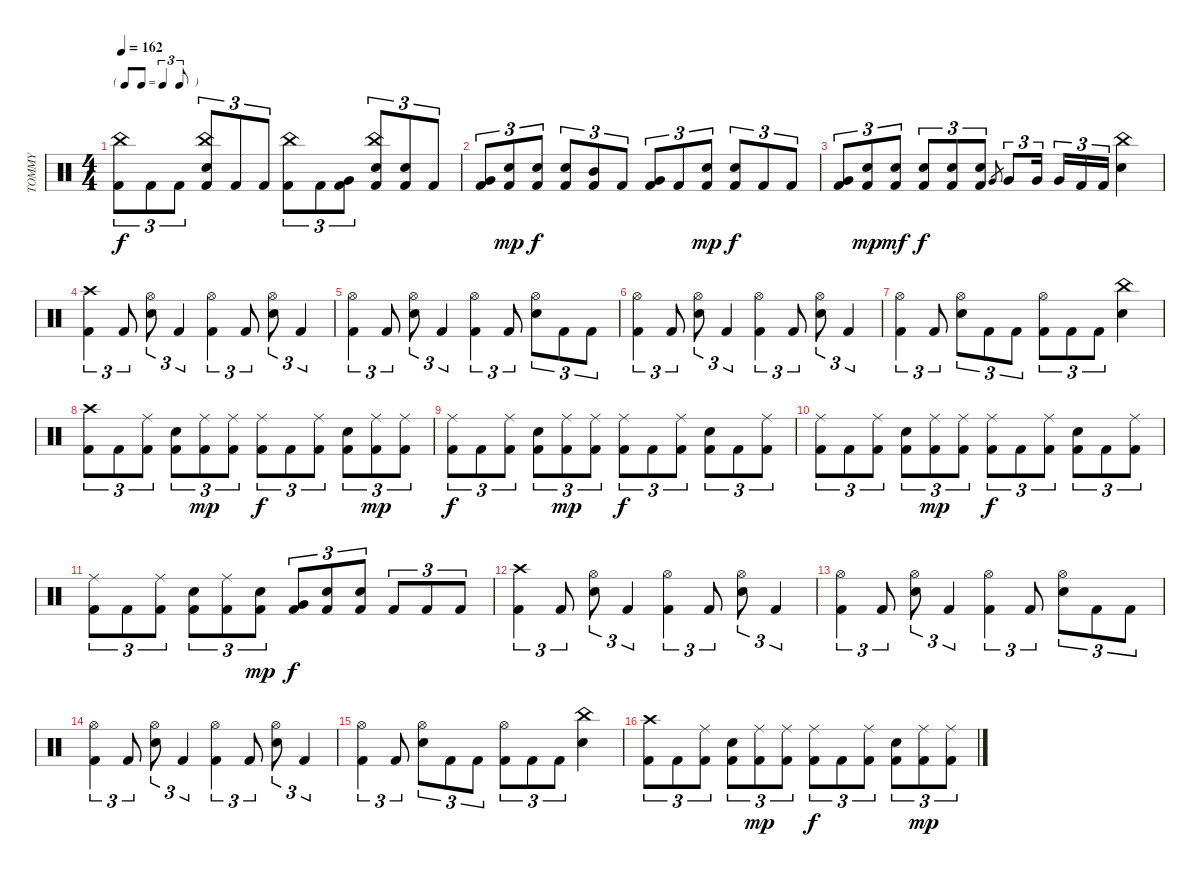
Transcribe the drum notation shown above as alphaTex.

\track ("TOMMY" "TOMMY") {instrument percussion}
\staff {score}
\articulation defaults
\ts (4 4)
\tf triplet8th
\tempo 162
\clef neutral
\ks c
("Kick (hit) 2" "China (hit)").8{tu (3 2) dy f} "Kick (hit) 2".8{tu (3 2)} "Kick (hit) 2".8{tu (3 2)} ("Snare (hit) 2" "Kick (hit) 2" "China (hit)").8{tu (3 2)} "Kick (hit) 2".8{tu (3 2)} "Kick (hit) 2".8{tu (3 2)} ("Kick (hit) 2" "China (hit)").8{tu (3 2)} "Kick (hit) 2".8{tu (3 2)} ("Kick (hit) 2" "Very Low Tom (hit)").8{tu (3 2)} ("Snare (hit) 2" "Kick (hit) 2" "China (hit)").8{tu (3 2)} ("Snare (hit) 2" "Kick (hit) 2").8{tu (3 2)} "Kick (hit) 2".8{tu (3 2)} |
("Kick (hit) 2" "Very Low Tom (hit)").8{tu (3 2)} ("Snare (hit) 2" "Kick (hit) 2").8{tu (3 2) dy mp} ("Snare (hit) 2" "Kick (hit) 2").8{tu (3 2) dy f} ("Snare (hit) 2" "Kick (hit) 2").8{tu (3 2)} ("Kick (hit) 2" "Mid Tom (hit)").8{tu (3 2)} "Kick (hit) 2".8{tu (3 2)} ("Kick (hit) 2" "Very Low Tom (hit)").8{tu (3 2)} "Kick (hit) 2".8{tu (3 2)} ("Snare (hit) 2" "Kick (hit) 2").8{tu (3 2) dy mp} ("Snare (hit) 2" "Kick (hit) 2").8{tu (3 2) dy f} "Kick (hit) 2".8{tu (3 2)} "Kick (hit) 2".8{tu (3 2)} |
("Kick (hit) 2" "Very Low Tom (hit)").8{tu (3 2)} ("Snare (hit) 2" "Kick (hit) 2").8{tu (3 2) dy mp} ("Snare (hit) 2" "Kick (hit) 2").8{tu (3 2) dy mf} ("Snare (hit) 2" "Kick (hit) 2").8{tu (3 2) dy f} ("Snare (hit) 2" "Kick (hit) 2").8{tu (3 2)} ("Snare (hit) 2" "Kick (hit) 2").8{tu (3 2)} "Very Low Tom (hit)".8{gr} "Very Low Tom (hit)".8{tu (3 2)} "Very Low Tom (hit)".16{tu (3 2)} "Very Low Tom (hit)".16{tu (3 2)} "Kick (hit) 2".16{tu (3 2)} "Kick (hit) 2".16{tu (3 2)} ("Snare (hit) 2" "China (hit)").4 |
("Kick (hit) 2" "Crash high (hit)").4{tu (3 2)} "Kick (hit) 2".8{tu (3 2)} ("Snare (hit) 2" "Hi-Hat (open)").8{tu (3 2)} "Kick (hit) 2".4{tu (3 2)} ("Kick (hit) 2" "Hi-Hat (open)").4{tu (3 2)} "Kick (hit) 2".8{tu (3 2)} ("Snare (hit) 2" "Hi-Hat (open)").8{tu (3 2)} "Kick (hit) 2".4{tu (3 2)} |
("Kick (hit) 2" "Hi-Hat (open)").4{tu (3 2)} "Kick (hit) 2".8{tu (3 2)} ("Snare (hit) 2" "Hi-Hat (open)").8{tu (3 2)} "Kick (hit) 2".4{tu (3 2)} ("Kick (hit) 2" "Hi-Hat (open)").4{tu (3 2)} "Kick (hit) 2".8{tu (3 2)} ("Snare (hit) 2" "Hi-Hat (open)").8{tu (3 2)} "Kick (hit) 2".8{tu (3 2)} "Kick (hit) 2".8{tu (3 2)} |
("Kick (hit) 2" "Hi-Hat (open)").4{tu (3 2)} "Kick (hit) 2".8{tu (3 2)} ("Snare (hit) 2" "Hi-Hat (open)").8{tu (3 2)} "Kick (hit) 2".4{tu (3 2)} ("Kick (hit) 2" "Hi-Hat (open)").4{tu (3 2)} "Kick (hit) 2".8{tu (3 2)} ("Snare (hit) 2" "Hi-Hat (open)").8{tu (3 2)} "Kick (hit) 2".4{tu (3 2)} |
("Kick (hit) 2" "Hi-Hat (open)").4{tu (3 2)} "Kick (hit) 2".8{tu (3 2)} ("Snare (hit) 2" "Hi-Hat (open)").8{tu (3 2)} "Kick (hit) 2".8{tu (3 2)} "Kick (hit) 2".8{tu (3 2)} ("Kick (hit) 2" "Hi-Hat (open)").8{tu (3 2)} "Kick (hit) 2".8{tu (3 2)} "Kick (hit) 2".8{tu (3 2)} ("Snare (hit) 2" "China (hit)").4 |
("Kick (hit) 2" "Crash high (hit)").8{tu (3 2)} "Kick (hit) 2".8{tu (3 2)} ("Kick (hit) 2" "Ride (middle)").8{tu (3 2)} ("Snare (hit) 2" "Kick (hit) 2").8{tu (3 2)} ("Kick (hit) 2" "Ride (middle)").8{tu (3 2) dy mp} ("Kick (hit) 2" "Ride (middle)").8{tu (3 2)} ("Kick (hit) 2" "Ride (middle)").8{tu (3 2) dy f} "Kick (hit) 2".8{tu (3 2)} ("Kick (hit) 2" "Ride (middle)").8{tu (3 2)} ("Snare (hit) 2" "Kick (hit) 2").8{tu (3 2)} ("Kick (hit) 2" "Ride (middle)").8{tu (3 2) dy mp} ("Kick (hit) 2" "Ride (middle)").8{tu (3 2)} |
("Kick (hit) 2" "Ride (middle)").8{tu (3 2) dy f} "Kick (hit) 2".8{tu (3 2)} ("Kick (hit) 2" "Ride (middle)").8{tu (3 2)} ("Snare (hit) 2" "Kick (hit) 2").8{tu (3 2)} ("Kick (hit) 2" "Ride (middle)").8{tu (3 2) dy mp} ("Kick (hit) 2" "Ride (middle)").8{tu (3 2)} ("Kick (hit) 2" "Ride (middle)").8{tu (3 2) dy f} "Kick (hit) 2".8{tu (3 2)} ("Kick (hit) 2" "Ride (middle)").8{tu (3 2)} ("Snare (hit) 2" "Kick (hit) 2").8{tu (3 2)} "Kick (hit) 2".8{tu (3 2)} ("Kick (hit) 2" "Ride (middle)").8{tu (3 2)} |
("Kick (hit) 2" "Ride (middle)").8{tu (3 2)} "Kick (hit) 2".8{tu (3 2)} ("Kick (hit) 2" "Ride (middle)").8{tu (3 2)} ("Snare (hit) 2" "Kick (hit) 2").8{tu (3 2)} ("Kick (hit) 2" "Ride (middle)").8{tu (3 2) dy mp} ("Kick (hit) 2" "Ride (middle)").8{tu (3 2)} ("Kick (hit) 2" "Ride (middle)").8{tu (3 2) dy f} "Kick (hit) 2".8{tu (3 2)} ("Kick (hit) 2" "Ride (middle)").8{tu (3 2)} ("Snare (hit) 2" "Kick (hit) 2").8{tu (3 2)} "Kick (hit) 2".8{tu (3 2)} ("Kick (hit) 2" "Ride (middle)").8{tu (3 2)} |
("Kick (hit) 2" "Ride (middle)").8{tu (3 2)} "Kick (hit) 2".8{tu (3 2)} ("Kick (hit) 2" "Ride (middle)").8{tu (3 2)} ("Snare (hit) 2" "Kick (hit) 2").8{tu (3 2)} ("Kick (hit) 2" "Ride (middle)").8{tu (3 2)} ("Snare (hit) 2" "Kick (hit) 2").8{tu (3 2) dy mp} ("Kick (hit) 2" "Very Low Tom (hit)").8{tu (3 2) dy f} ("Snare (hit) 2" "Kick (hit) 2").8{tu (3 2)} ("Snare (hit) 2" "Kick (hit) 2").8{tu (3 2)} "Kick (hit) 2".8{tu (3 2)} "Kick (hit) 2".8{tu (3 2)} "Kick (hit) 2".8{tu (3 2)} |
("Kick (hit) 2" "Crash high (hit)").4{tu (3 2)} "Kick (hit) 2".8{tu (3 2)} ("Snare (hit) 2" "Hi-Hat (open)").8{tu (3 2)} "Kick (hit) 2".4{tu (3 2)} ("Kick (hit) 2" "Hi-Hat (open)").4{tu (3 2)} "Kick (hit) 2".8{tu (3 2)} ("Snare (hit) 2" "Hi-Hat (open)").8{tu (3 2)} "Kick (hit) 2".4{tu (3 2)} |
("Kick (hit) 2" "Hi-Hat (open)").4{tu (3 2)} "Kick (hit) 2".8{tu (3 2)} ("Snare (hit) 2" "Hi-Hat (open)").8{tu (3 2)} "Kick (hit) 2".4{tu (3 2)} ("Kick (hit) 2" "Hi-Hat (open)").4{tu (3 2)} "Kick (hit) 2".8{tu (3 2)} ("Snare (hit) 2" "Hi-Hat (open)").8{tu (3 2)} "Kick (hit) 2".8{tu (3 2)} "Kick (hit) 2".8{tu (3 2)} |
("Kick (hit) 2" "Hi-Hat (open)").4{tu (3 2)} "Kick (hit) 2".8{tu (3 2)} ("Snare (hit) 2" "Hi-Hat (open)").8{tu (3 2)} "Kick (hit) 2".4{tu (3 2)} ("Kick (hit) 2" "Hi-Hat (open)").4{tu (3 2)} "Kick (hit) 2".8{tu (3 2)} ("Snare (hit) 2" "Hi-Hat (open)").8{tu (3 2)} "Kick (hit) 2".4{tu (3 2)} |
("Kick (hit) 2" "Hi-Hat (open)").4{tu (3 2)} "Kick (hit) 2".8{tu (3 2)} ("Snare (hit) 2" "Hi-Hat (open)").8{tu (3 2)} "Kick (hit) 2".8{tu (3 2)} "Kick (hit) 2".8{tu (3 2)} ("Kick (hit) 2" "Hi-Hat (open)").8{tu (3 2)} "Kick (hit) 2".8{tu (3 2)} "Kick (hit) 2".8{tu (3 2)} ("Snare (hit) 2" "China (hit)").4 |
("Kick (hit) 2" "Crash high (hit)").8{tu (3 2)} "Kick (hit) 2".8{tu (3 2)} ("Kick (hit) 2" "Ride (middle)").8{tu (3 2)} ("Snare (hit) 2" "Kick (hit) 2").8{tu (3 2)} ("Kick (hit) 2" "Ride (middle)").8{tu (3 2) dy mp} ("Kick (hit) 2" "Ride (middle)").8{tu (3 2)} ("Kick (hit) 2" "Ride (middle)").8{tu (3 2) dy f} "Kick (hit) 2".8{tu (3 2)} ("Kick (hit) 2" "Ride (middle)").8{tu (3 2)} ("Snare (hit) 2" "Kick (hit) 2").8{tu (3 2)} ("Kick (hit) 2" "Ride (middle)").8{tu (3 2) dy mp} ("Kick (hit) 2" "Ride (middle)").8{tu (3 2)}
